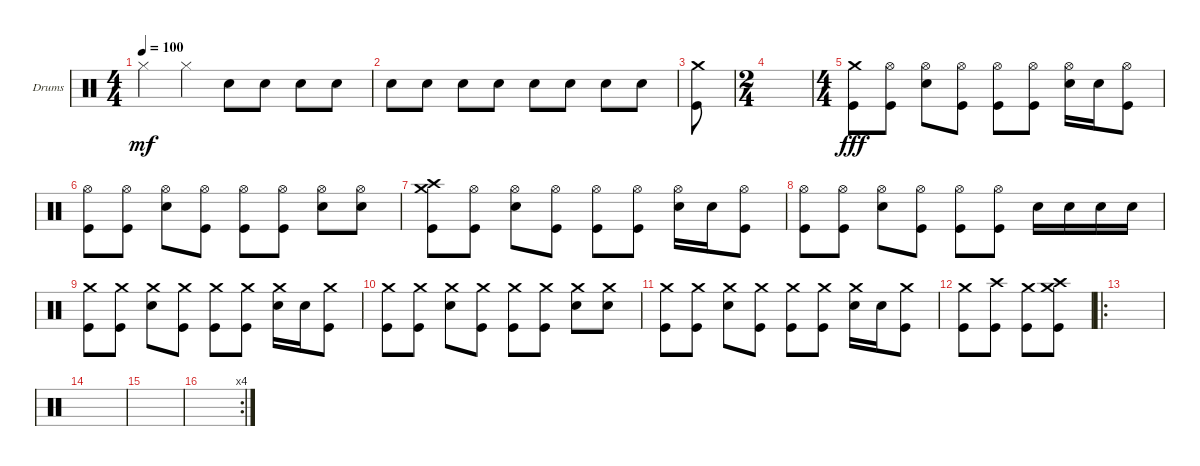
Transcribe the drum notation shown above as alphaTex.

\bracketExtendMode groupsimilarinstruments
\firstSystemTrackNameOrientation horizontal
\otherSystemsTrackNameOrientation horizontal
\track ("Drumkit" "Drums") {instrument percussion}
\staff {score}
\articulation defaults
\ts (4 4)
\tempo 100
\clef neutral
\ks c "Hi-Hat (closed)".4{dy mf} "Hi-Hat (closed)".4 "Snare (hit) 2".8 "Snare (hit) 2".8 "Snare (hit) 2".8 "Snare (hit) 2".8
|
"Snare (hit) 2".8 "Snare (hit) 2".8 "Snare (hit) 2".8 "Snare (hit) 2".8 "Snare (hit) 2".8 "Snare (hit) 2".8 "Snare (hit) 2".8 "Snare (hit) 2".8 |
("Kick (hit)" "Crash medium (hit)").8 |
\ts (2 4)
|
\ts (4 4)
("Kick (hit)" "Crash medium (hit)").8{dy fff} ("Kick (hit)" "Hi-Hat (open)").8 ("Snare (hit) 2" "Hi-Hat (open)").8 ("Hi-Hat (open)" "Kick (hit)").8 ("Kick (hit)" "Hi-Hat (open)").8 ("Kick (hit)" "Hi-Hat (open)").8 ("Snare (hit) 2" "Hi-Hat (open)").16 "Snare (hit) 2".16 ("Hi-Hat (open)" "Kick (hit)").8 |
("Kick (hit)" "Hi-Hat (open)").8 ("Kick (hit)" "Hi-Hat (open)").8 ("Snare (hit) 2" "Hi-Hat (open)").8 ("Hi-Hat (open)" "Kick (hit)").8 ("Kick (hit)" "Hi-Hat (open)").8 ("Kick (hit)" "Hi-Hat (open)").8 ("Snare (hit) 2" "Hi-Hat (open)").8 ("Snare (hit) 2" "Hi-Hat (open)").8 |
("Kick (hit)" "Crash medium (hit)" "Crash high (hit)").8 ("Kick (hit)" "Hi-Hat (open)").8 ("Snare (hit) 2" "Hi-Hat (open)").8 ("Hi-Hat (open)" "Kick (hit)").8 ("Kick (hit)" "Hi-Hat (open)").8 ("Kick (hit)" "Hi-Hat (open)").8 ("Snare (hit) 2" "Hi-Hat (open)").16 "Snare (hit) 2".16 ("Hi-Hat (open)" "Kick (hit)").8 |
("Kick (hit)" "Hi-Hat (open)").8 ("Kick (hit)" "Hi-Hat (open)").8 ("Snare (hit) 2" "Hi-Hat (open)").8 ("Hi-Hat (open)" "Kick (hit)").8 ("Kick (hit)" "Hi-Hat (open)").8 ("Kick (hit)" "Hi-Hat (open)").8 "Snare (hit) 2".16 "Snare (hit) 2".16 "Snare (hit) 2".16 "Snare (hit) 2".16 |
("Kick (hit)" "Crash medium (hit)").8 ("Kick (hit)" "Crash medium (hit)").8 ("Snare (hit) 2" "Crash medium (hit)").8 ("Kick (hit)" "Crash medium (hit)").8 ("Kick (hit)" "Crash medium (hit)").8 ("Kick (hit)" "Crash medium (hit)").8 ("Snare (hit) 2" "Crash medium (hit)").16 "Snare (hit) 2".16 ("Kick (hit)" "Crash medium (hit)").8 |
("Kick (hit)" "Crash medium (hit)").8 ("Kick (hit)" "Crash medium (hit)").8 ("Snare (hit) 2" "Crash medium (hit)").8 ("Kick (hit)" "Crash medium (hit)").8 ("Kick (hit)" "Crash medium (hit)").8 ("Kick (hit)" "Crash medium (hit)").8 ("Snare (hit) 2" "Crash medium (hit)").8 ("Snare (hit) 2" "Crash medium (hit)").8 |
("Kick (hit)" "Crash medium (hit)").8 ("Kick (hit)" "Crash medium (hit)").8 ("Snare (hit) 2" "Crash medium (hit)").8 ("Kick (hit)" "Crash medium (hit)").8 ("Kick (hit)" "Crash medium (hit)").8 ("Kick (hit)" "Crash medium (hit)").8 ("Snare (hit) 2" "Crash medium (hit)").16 "Snare (hit) 2".16 ("Kick (hit)" "Crash medium (hit)").8 |
("Kick (hit)" "Crash medium (hit)").8 ("Kick (hit)" "Crash high (hit)").8 ("Kick (hit)" "Crash medium (hit)").8 ("Kick (hit)" "Crash high (hit)" "Crash medium (hit)").8 |
\ro
|
|
|
\rc 4
